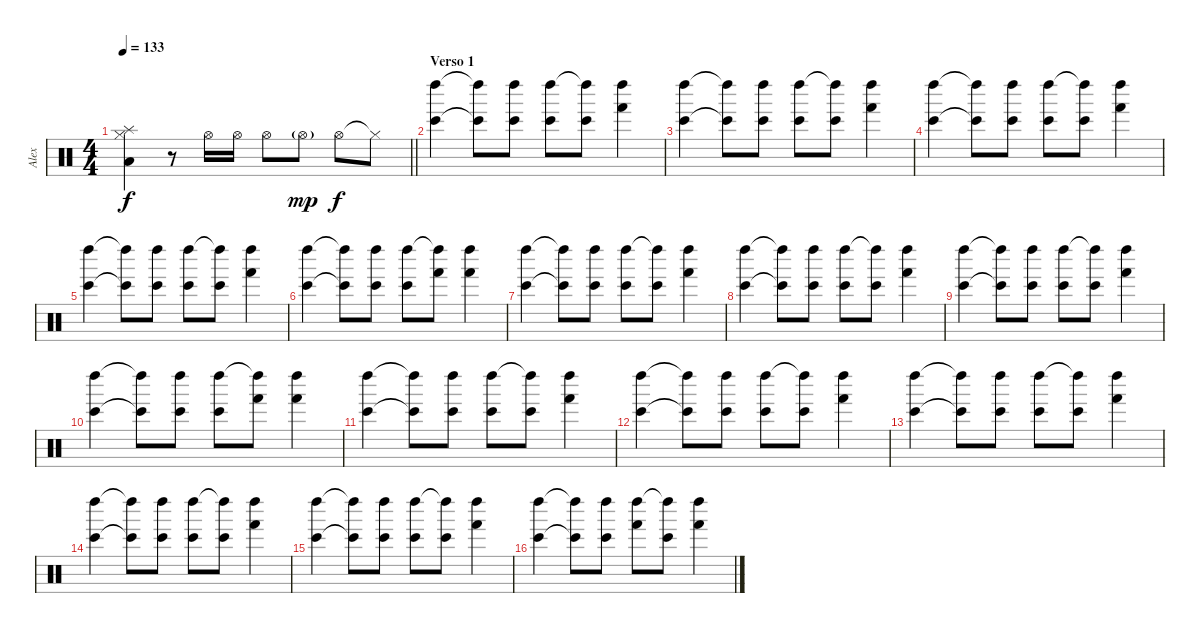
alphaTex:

\track ("Alex" "Alex") {instrument percussion}
\staff {score}
\articulation defaults
\ts (4 4)
\tempo 133
\clef neutral
\barLineRight lightlight
\ks c
("Low Tom (hit)" "Splash (hit)" "Hi-Hat (closed)").4{dy f} r.8 "Hi-Hat (open)".16 "Hi-Hat (open)".16 "Hi-Hat (open)".8 "Hi-Hat (open)"{g}.8{dy mp} "Hi-Hat (open)".8{dy f} "Hi-Hat (closed)"{t}.8 |
\section ("" "Verso 1")
("Bongo High (hit)" "Left Maraca (hit)").4 ("Bongo High (hit)"{t} "Left Maraca (hit)"{t}).8 ("Bongo High (hit)" "Left Maraca (hit)").8 ("Bongo High (hit)" "Left Maraca (hit)").8 ("Bongo High (hit)" "Left Maraca (hit)"{t}).8 ("Hand (hit)" "Left Maraca (hit)").4 |
("Bongo High (hit)" "Left Maraca (hit)").4 ("Bongo High (hit)"{t} "Left Maraca (hit)"{t}).8 ("Bongo High (hit)" "Left Maraca (hit)").8 ("Bongo High (hit)" "Left Maraca (hit)").8 ("Bongo High (hit)" "Left Maraca (hit)"{t}).8 ("Hand (hit)" "Left Maraca (hit)").4 |
("Bongo High (hit)" "Left Maraca (hit)").4 ("Bongo High (hit)"{t} "Left Maraca (hit)"{t}).8 ("Bongo High (hit)" "Left Maraca (hit)").8 ("Bongo High (hit)" "Left Maraca (hit)").8 ("Bongo High (hit)" "Left Maraca (hit)"{t}).8 ("Hand (hit)" "Left Maraca (hit)").4 |
("Bongo High (hit)" "Left Maraca (hit)").4 ("Bongo High (hit)"{t} "Left Maraca (hit)"{t}).8 ("Bongo High (hit)" "Left Maraca (hit)").8 ("Bongo High (hit)" "Left Maraca (hit)").8 ("Bongo High (hit)" "Left Maraca (hit)"{t}).8 ("Hand (hit)" "Left Maraca (hit)").4 |
("Bongo High (hit)" "Left Maraca (hit)").4 ("Bongo High (hit)"{t} "Left Maraca (hit)"{t}).8 ("Bongo High (hit)" "Left Maraca (hit)").8 ("Bongo High (hit)" "Left Maraca (hit)").8 ("Hand (hit)" "Left Maraca (hit)"{t}).8 ("Hand (hit)" "Left Maraca (hit)").4 |
("Bongo High (hit)" "Left Maraca (hit)").4 ("Bongo High (hit)"{t} "Left Maraca (hit)"{t}).8 ("Bongo High (hit)" "Left Maraca (hit)").8 ("Bongo High (hit)" "Left Maraca (hit)").8 ("Bongo High (hit)" "Left Maraca (hit)"{t}).8 ("Hand (hit)" "Left Maraca (hit)").4 |
("Bongo High (hit)" "Left Maraca (hit)").4 ("Bongo High (hit)"{t} "Left Maraca (hit)"{t}).8 ("Bongo High (hit)" "Left Maraca (hit)").8 ("Bongo High (hit)" "Left Maraca (hit)").8 ("Bongo High (hit)" "Left Maraca (hit)"{t}).8 ("Hand (hit)" "Left Maraca (hit)").4 |
("Bongo High (hit)" "Left Maraca (hit)").4 ("Bongo High (hit)"{t} "Left Maraca (hit)"{t}).8 ("Bongo High (hit)" "Left Maraca (hit)").8 ("Bongo High (hit)" "Left Maraca (hit)").8 ("Bongo High (hit)" "Left Maraca (hit)"{t}).8 ("Hand (hit)" "Left Maraca (hit)").4 |
("Bongo High (hit)" "Left Maraca (hit)").4 ("Bongo High (hit)"{t} "Left Maraca (hit)"{t}).8 ("Bongo High (hit)" "Left Maraca (hit)").8 ("Bongo High (hit)" "Left Maraca (hit)").8 ("Hand (hit)" "Left Maraca (hit)"{t}).8 ("Hand (hit)" "Left Maraca (hit)").4 |
("Bongo High (hit)" "Left Maraca (hit)").4 ("Bongo High (hit)"{t} "Left Maraca (hit)"{t}).8 ("Bongo High (hit)" "Left Maraca (hit)").8 ("Bongo High (hit)" "Left Maraca (hit)").8 ("Bongo High (hit)" "Left Maraca (hit)"{t}).8 ("Hand (hit)" "Left Maraca (hit)").4 |
("Bongo High (hit)" "Left Maraca (hit)").4 ("Bongo High (hit)"{t} "Left Maraca (hit)"{t}).8 ("Bongo High (hit)" "Left Maraca (hit)").8 ("Bongo High (hit)" "Left Maraca (hit)").8 ("Bongo High (hit)" "Left Maraca (hit)"{t}).8 ("Hand (hit)" "Left Maraca (hit)").4 |
("Bongo High (hit)" "Left Maraca (hit)").4 ("Bongo High (hit)"{t} "Left Maraca (hit)"{t}).8 ("Bongo High (hit)" "Left Maraca (hit)").8 ("Bongo High (hit)" "Left Maraca (hit)").8 ("Bongo High (hit)" "Left Maraca (hit)"{t}).8 ("Hand (hit)" "Left Maraca (hit)").4 |
("Bongo High (hit)" "Left Maraca (hit)").4 ("Bongo High (hit)"{t} "Left Maraca (hit)"{t}).8 ("Bongo High (hit)" "Left Maraca (hit)").8 ("Bongo High (hit)" "Left Maraca (hit)").8 ("Bongo High (hit)" "Left Maraca (hit)"{t}).8 ("Hand (hit)" "Left Maraca (hit)").4 |
("Bongo High (hit)" "Left Maraca (hit)").4 ("Bongo High (hit)"{t} "Left Maraca (hit)"{t}).8 ("Bongo High (hit)" "Left Maraca (hit)").8 ("Bongo High (hit)" "Left Maraca (hit)").8 ("Bongo High (hit)" "Left Maraca (hit)"{t}).8 ("Hand (hit)" "Left Maraca (hit)").4 |
("Bongo High (hit)" "Left Maraca (hit)").4 ("Bongo High (hit)"{t} "Left Maraca (hit)"{t}).8 ("Bongo High (hit)" "Left Maraca (hit)").8 ("Hand (hit)" "Left Maraca (hit)").8 ("Bongo High (hit)" "Left Maraca (hit)"{t}).8 ("Hand (hit)" "Left Maraca (hit)").4
